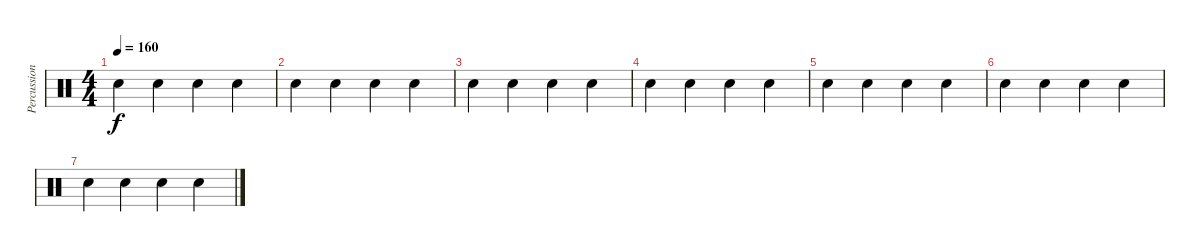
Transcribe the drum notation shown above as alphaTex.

\track ("Percussion" "Percussion") {instrument percussion}
\staff {score}
\articulation defaults
\ts (4 4)
\tempo 160
\clef neutral
\ks c "Snare (hit) 2".4{dy f} "Snare (hit) 2".4 "Snare (hit) 2".4 "Snare (hit) 2".4
|
"Snare (hit) 2".4 "Snare (hit) 2".4 "Snare (hit) 2".4 "Snare (hit) 2".4 |
"Snare (hit) 2".4 "Snare (hit) 2".4 "Snare (hit) 2".4 "Snare (hit) 2".4 |
"Snare (hit) 2".4 "Snare (hit) 2".4 "Snare (hit) 2".4 "Snare (hit) 2".4 |
"Snare (hit) 2".4 "Snare (hit) 2".4 "Snare (hit) 2".4 "Snare (hit) 2".4 |
"Snare (hit) 2".4 "Snare (hit) 2".4 "Snare (hit) 2".4 "Snare (hit) 2".4 |
"Snare (hit) 2".4 "Snare (hit) 2".4 "Snare (hit) 2".4 "Snare (hit) 2".4
